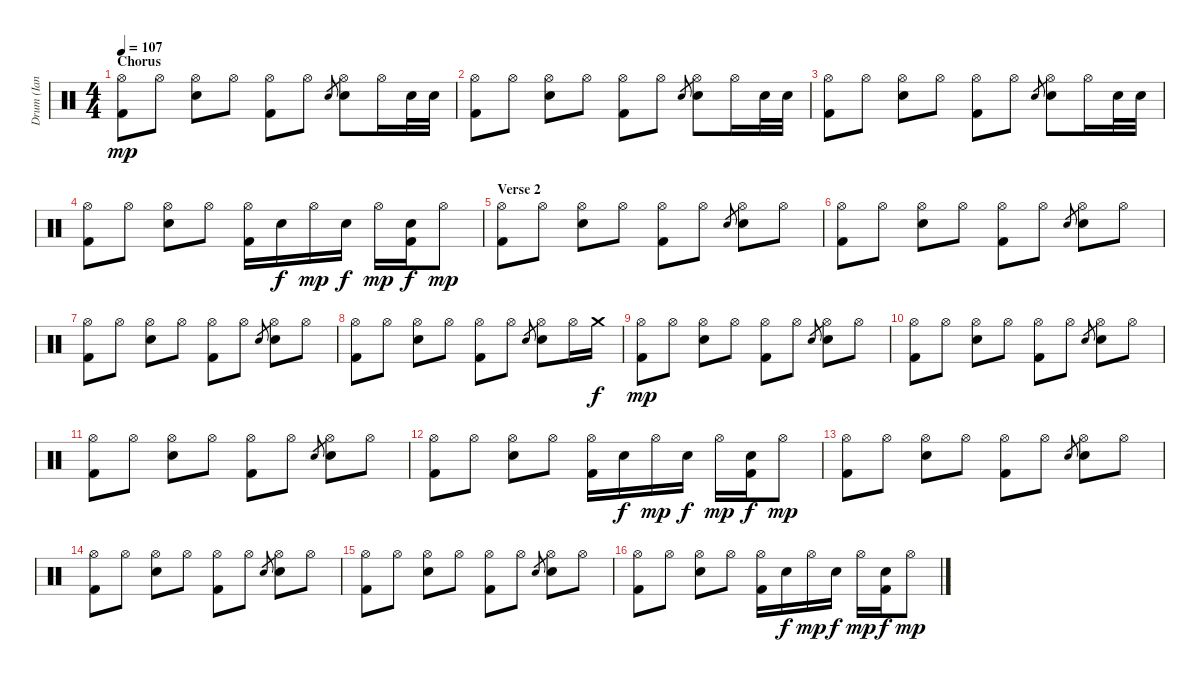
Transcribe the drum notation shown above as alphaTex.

\track ("Drum (Ian Paice)" "Drum (Ian ") {instrument percussion}
\staff {score}
\articulation defaults
\ts (4 4)
\section ("" "Chorus")
\tempo 107
\clef neutral
\ks c
("Hi-Hat (open)" "Kick (hit) 2").8{dy mp} "Hi-Hat (open)".8 ("Hi-Hat (open)" "Snare (hit) 2").8 "Hi-Hat (open)".8 ("Hi-Hat (open)" "Kick (hit) 2").8 "Hi-Hat (open)".8 "Snare (hit) 2".8{gr} ("Hi-Hat (open)" "Snare (hit) 2").8 "Hi-Hat (open)".16 "Snare (hit) 2".32 "Snare (hit) 2".32 |
("Hi-Hat (open)" "Kick (hit) 2").8 "Hi-Hat (open)".8 ("Hi-Hat (open)" "Snare (hit) 2").8 "Hi-Hat (open)".8 ("Hi-Hat (open)" "Kick (hit) 2").8 "Hi-Hat (open)".8 "Snare (hit) 2".8{gr} ("Hi-Hat (open)" "Snare (hit) 2").8 "Hi-Hat (open)".16 "Snare (hit) 2".32 "Snare (hit) 2".32 |
("Hi-Hat (open)" "Kick (hit) 2").8 "Hi-Hat (open)".8 ("Hi-Hat (open)" "Snare (hit) 2").8 "Hi-Hat (open)".8 ("Hi-Hat (open)" "Kick (hit) 2").8 "Hi-Hat (open)".8 "Snare (hit) 2".8{gr} ("Hi-Hat (open)" "Snare (hit) 2").8 "Hi-Hat (open)".16 "Snare (hit) 2".32 "Snare (hit) 2".32 |
("Hi-Hat (open)" "Kick (hit) 2").8 "Hi-Hat (open)".8 ("Hi-Hat (open)" "Snare (hit) 2").8 "Hi-Hat (open)".8 ("Hi-Hat (open)" "Kick (hit) 2").16 "Snare (hit) 2".16{dy f} "Hi-Hat (open)".16{dy mp} "Snare (hit) 2".16{dy f} "Hi-Hat (open)".16{dy mp} ("Snare (hit) 2" "Kick (hit) 2").16{dy f} "Hi-Hat (open)".8{dy mp} |
\section ("" "Verse 2")
("Hi-Hat (open)" "Kick (hit) 2").8 "Hi-Hat (open)".8 ("Hi-Hat (open)" "Snare (hit) 2").8 "Hi-Hat (open)".8 ("Hi-Hat (open)" "Kick (hit) 2").8 "Hi-Hat (open)".8 "Snare (hit) 2".8{gr} ("Hi-Hat (open)" "Snare (hit) 2").8 "Hi-Hat (open)".8 |
("Hi-Hat (open)" "Kick (hit) 2").8 "Hi-Hat (open)".8 ("Hi-Hat (open)" "Snare (hit) 2").8 "Hi-Hat (open)".8 ("Hi-Hat (open)" "Kick (hit) 2").8 "Hi-Hat (open)".8 "Snare (hit) 2".8{gr} ("Hi-Hat (open)" "Snare (hit) 2").8 "Hi-Hat (open)".8 |
("Hi-Hat (open)" "Kick (hit) 2").8 "Hi-Hat (open)".8 ("Hi-Hat (open)" "Snare (hit) 2").8 "Hi-Hat (open)".8 ("Hi-Hat (open)" "Kick (hit) 2").8 "Hi-Hat (open)".8 "Snare (hit) 2".8{gr} ("Hi-Hat (open)" "Snare (hit) 2").8 "Hi-Hat (open)".8 |
("Hi-Hat (open)" "Kick (hit) 2").8 "Hi-Hat (open)".8 ("Hi-Hat (open)" "Snare (hit) 2").8 "Hi-Hat (open)".8 ("Hi-Hat (open)" "Kick (hit) 2").8 "Hi-Hat (open)".8 "Snare (hit) 2".8{gr} ("Hi-Hat (open)" "Snare (hit) 2").8 "Hi-Hat (open)".16 "Crash medium (hit)".16{dy f} |
("Hi-Hat (open)" "Kick (hit) 2").8{dy mp} "Hi-Hat (open)".8 ("Hi-Hat (open)" "Snare (hit) 2").8 "Hi-Hat (open)".8 ("Hi-Hat (open)" "Kick (hit) 2").8 "Hi-Hat (open)".8 "Snare (hit) 2".8{gr} ("Hi-Hat (open)" "Snare (hit) 2").8 "Hi-Hat (open)".8 |
("Hi-Hat (open)" "Kick (hit) 2").8 "Hi-Hat (open)".8 ("Hi-Hat (open)" "Snare (hit) 2").8 "Hi-Hat (open)".8 ("Hi-Hat (open)" "Kick (hit) 2").8 "Hi-Hat (open)".8 "Snare (hit) 2".8{gr} ("Hi-Hat (open)" "Snare (hit) 2").8 "Hi-Hat (open)".8 |
("Hi-Hat (open)" "Kick (hit) 2").8 "Hi-Hat (open)".8 ("Hi-Hat (open)" "Snare (hit) 2").8 "Hi-Hat (open)".8 ("Hi-Hat (open)" "Kick (hit) 2").8 "Hi-Hat (open)".8 "Snare (hit) 2".8{gr} ("Hi-Hat (open)" "Snare (hit) 2").8 "Hi-Hat (open)".8 |
("Hi-Hat (open)" "Kick (hit) 2").8 "Hi-Hat (open)".8 ("Hi-Hat (open)" "Snare (hit) 2").8 "Hi-Hat (open)".8 ("Hi-Hat (open)" "Kick (hit) 2").16 "Snare (hit) 2".16{dy f} "Hi-Hat (open)".16{dy mp} "Snare (hit) 2".16{dy f} "Hi-Hat (open)".16{dy mp} ("Snare (hit) 2" "Kick (hit) 2").16{dy f} "Hi-Hat (open)".8{dy mp} |
("Hi-Hat (open)" "Kick (hit) 2").8 "Hi-Hat (open)".8 ("Hi-Hat (open)" "Snare (hit) 2").8 "Hi-Hat (open)".8 ("Hi-Hat (open)" "Kick (hit) 2").8 "Hi-Hat (open)".8 "Snare (hit) 2".8{gr} ("Hi-Hat (open)" "Snare (hit) 2").8 "Hi-Hat (open)".8 |
("Hi-Hat (open)" "Kick (hit) 2").8 "Hi-Hat (open)".8 ("Hi-Hat (open)" "Snare (hit) 2").8 "Hi-Hat (open)".8 ("Hi-Hat (open)" "Kick (hit) 2").8 "Hi-Hat (open)".8 "Snare (hit) 2".8{gr} ("Hi-Hat (open)" "Snare (hit) 2").8 "Hi-Hat (open)".8 |
("Hi-Hat (open)" "Kick (hit) 2").8 "Hi-Hat (open)".8 ("Hi-Hat (open)" "Snare (hit) 2").8 "Hi-Hat (open)".8 ("Hi-Hat (open)" "Kick (hit) 2").8 "Hi-Hat (open)".8 "Snare (hit) 2".8{gr} ("Hi-Hat (open)" "Snare (hit) 2").8 "Hi-Hat (open)".8 |
("Hi-Hat (open)" "Kick (hit) 2").8 "Hi-Hat (open)".8 ("Hi-Hat (open)" "Snare (hit) 2").8 "Hi-Hat (open)".8 ("Hi-Hat (open)" "Kick (hit) 2").16 "Snare (hit) 2".16{dy f} "Hi-Hat (open)".16{dy mp} "Snare (hit) 2".16{dy f} "Hi-Hat (open)".16{dy mp} ("Snare (hit) 2" "Kick (hit) 2").16{dy f} "Hi-Hat (open)".8{dy mp}
